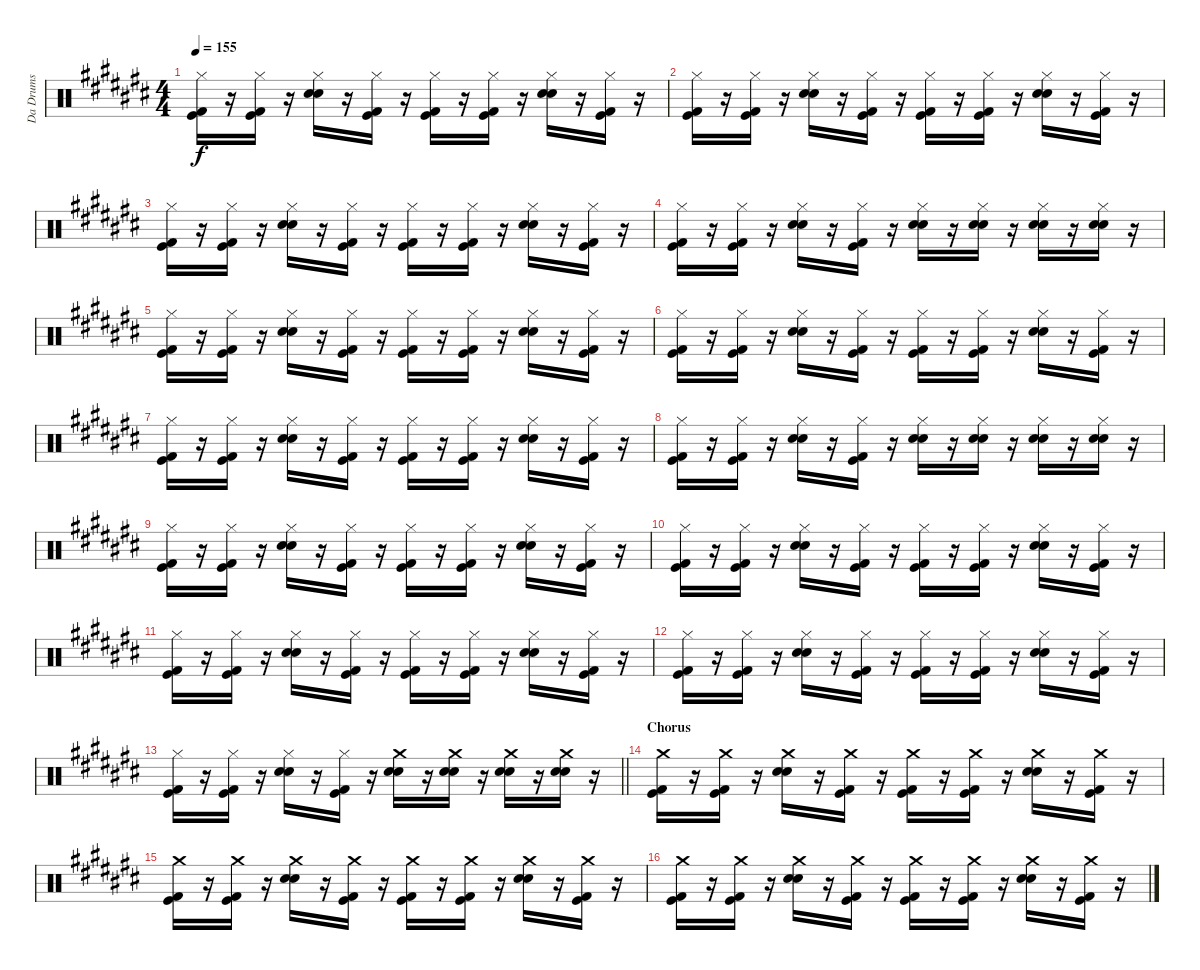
\track ("Da Drums" "Da Drums") {instrument percussion}
\staff {score}
\articulation defaults
\ts (4 4)
\tempo 155
\clef neutral
\ks c#
("Hi-Hat (closed)" "Kick (hit)" "Kick (hit) 2").16{dy f} r.16 ("Hi-Hat (closed)" "Kick (hit)" "Kick (hit) 2").16 r.16 ("Hi-Hat (closed)" "Electric Snare (hit)" "Snare (hit) 2").16 r.16 ("Hi-Hat (closed)" "Kick (hit)" "Kick (hit) 2").16 r.16 ("Hi-Hat (closed)" "Kick (hit)" "Kick (hit) 2").16 r.16 ("Hi-Hat (closed)" "Kick (hit)" "Kick (hit) 2").16 r.16 ("Hi-Hat (closed)" "Electric Snare (hit)" "Snare (hit) 2").16 r.16 ("Hi-Hat (closed)" "Kick (hit)" "Kick (hit) 2").16 r.16 |
("Hi-Hat (closed)" "Kick (hit)" "Kick (hit) 2").16 r.16 ("Hi-Hat (closed)" "Kick (hit)" "Kick (hit) 2").16 r.16 ("Hi-Hat (closed)" "Electric Snare (hit)" "Snare (hit) 2").16 r.16 ("Hi-Hat (closed)" "Kick (hit)" "Kick (hit) 2").16 r.16 ("Hi-Hat (closed)" "Kick (hit)" "Kick (hit) 2").16 r.16 ("Hi-Hat (closed)" "Kick (hit)" "Kick (hit) 2").16 r.16 ("Hi-Hat (closed)" "Electric Snare (hit)" "Snare (hit) 2").16 r.16 ("Hi-Hat (closed)" "Kick (hit)" "Kick (hit) 2").16 r.16 |
("Hi-Hat (closed)" "Kick (hit)" "Kick (hit) 2").16 r.16 ("Hi-Hat (closed)" "Kick (hit)" "Kick (hit) 2").16 r.16 ("Hi-Hat (closed)" "Electric Snare (hit)" "Snare (hit) 2").16 r.16 ("Hi-Hat (closed)" "Kick (hit)" "Kick (hit) 2").16 r.16 ("Hi-Hat (closed)" "Kick (hit)" "Kick (hit) 2").16 r.16 ("Hi-Hat (closed)" "Kick (hit)" "Kick (hit) 2").16 r.16 ("Hi-Hat (closed)" "Electric Snare (hit)" "Snare (hit) 2").16 r.16 ("Hi-Hat (closed)" "Kick (hit)" "Kick (hit) 2").16 r.16 |
("Hi-Hat (closed)" "Kick (hit)" "Kick (hit) 2").16 r.16 ("Hi-Hat (closed)" "Kick (hit)" "Kick (hit) 2").16 r.16 ("Hi-Hat (closed)" "Electric Snare (hit)" "Snare (hit) 2").16 r.16 ("Hi-Hat (closed)" "Kick (hit)" "Kick (hit) 2").16 r.16 ("Hi-Hat (closed)" "Electric Snare (hit)" "Snare (hit) 2").16 r.16 ("Hi-Hat (closed)" "Electric Snare (hit)" "Snare (hit) 2").16 r.16 ("Hi-Hat (closed)" "Electric Snare (hit)" "Snare (hit) 2").16 r.16 ("Hi-Hat (closed)" "Electric Snare (hit)" "Snare (hit) 2").16 r.16 |
("Hi-Hat (closed)" "Kick (hit)" "Kick (hit) 2").16 r.16 ("Hi-Hat (closed)" "Kick (hit)" "Kick (hit) 2").16 r.16 ("Hi-Hat (closed)" "Electric Snare (hit)" "Snare (hit) 2").16 r.16 ("Hi-Hat (closed)" "Kick (hit)" "Kick (hit) 2").16 r.16 ("Hi-Hat (closed)" "Kick (hit)" "Kick (hit) 2").16 r.16 ("Hi-Hat (closed)" "Kick (hit)" "Kick (hit) 2").16 r.16 ("Hi-Hat (closed)" "Electric Snare (hit)" "Snare (hit) 2").16 r.16 ("Hi-Hat (closed)" "Kick (hit)" "Kick (hit) 2").16 r.16 |
("Hi-Hat (closed)" "Kick (hit)" "Kick (hit) 2").16 r.16 ("Hi-Hat (closed)" "Kick (hit)" "Kick (hit) 2").16 r.16 ("Hi-Hat (closed)" "Electric Snare (hit)" "Snare (hit) 2").16 r.16 ("Hi-Hat (closed)" "Kick (hit)" "Kick (hit) 2").16 r.16 ("Hi-Hat (closed)" "Kick (hit)" "Kick (hit) 2").16 r.16 ("Hi-Hat (closed)" "Kick (hit)" "Kick (hit) 2").16 r.16 ("Hi-Hat (closed)" "Electric Snare (hit)" "Snare (hit) 2").16 r.16 ("Hi-Hat (closed)" "Kick (hit)" "Kick (hit) 2").16 r.16 |
("Hi-Hat (closed)" "Kick (hit)" "Kick (hit) 2").16 r.16 ("Hi-Hat (closed)" "Kick (hit)" "Kick (hit) 2").16 r.16 ("Hi-Hat (closed)" "Electric Snare (hit)" "Snare (hit) 2").16 r.16 ("Hi-Hat (closed)" "Kick (hit)" "Kick (hit) 2").16 r.16 ("Hi-Hat (closed)" "Kick (hit)" "Kick (hit) 2").16 r.16 ("Hi-Hat (closed)" "Kick (hit)" "Kick (hit) 2").16 r.16 ("Hi-Hat (closed)" "Electric Snare (hit)" "Snare (hit) 2").16 r.16 ("Hi-Hat (closed)" "Kick (hit)" "Kick (hit) 2").16 r.16 |
("Hi-Hat (closed)" "Kick (hit)" "Kick (hit) 2").16 r.16 ("Hi-Hat (closed)" "Kick (hit)" "Kick (hit) 2").16 r.16 ("Hi-Hat (closed)" "Electric Snare (hit)" "Snare (hit) 2").16 r.16 ("Hi-Hat (closed)" "Kick (hit)" "Kick (hit) 2").16 r.16 ("Hi-Hat (closed)" "Electric Snare (hit)" "Snare (hit) 2").16 r.16 ("Hi-Hat (closed)" "Electric Snare (hit)" "Snare (hit) 2").16 r.16 ("Hi-Hat (closed)" "Electric Snare (hit)" "Snare (hit) 2").16 r.16 ("Hi-Hat (closed)" "Electric Snare (hit)" "Snare (hit) 2").16 r.16 |
("Hi-Hat (closed)" "Kick (hit)" "Kick (hit) 2").16 r.16 ("Hi-Hat (closed)" "Kick (hit)" "Kick (hit) 2").16 r.16 ("Hi-Hat (closed)" "Electric Snare (hit)" "Snare (hit) 2").16 r.16 ("Hi-Hat (closed)" "Kick (hit)" "Kick (hit) 2").16 r.16 ("Hi-Hat (closed)" "Kick (hit)" "Kick (hit) 2").16 r.16 ("Hi-Hat (closed)" "Kick (hit)" "Kick (hit) 2").16 r.16 ("Hi-Hat (closed)" "Electric Snare (hit)" "Snare (hit) 2").16 r.16 ("Hi-Hat (closed)" "Kick (hit)" "Kick (hit) 2").16 r.16 |
("Hi-Hat (closed)" "Kick (hit)" "Kick (hit) 2").16 r.16 ("Hi-Hat (closed)" "Kick (hit)" "Kick (hit) 2").16 r.16 ("Hi-Hat (closed)" "Electric Snare (hit)" "Snare (hit) 2").16 r.16 ("Hi-Hat (closed)" "Kick (hit)" "Kick (hit) 2").16 r.16 ("Hi-Hat (closed)" "Kick (hit)" "Kick (hit) 2").16 r.16 ("Hi-Hat (closed)" "Kick (hit)" "Kick (hit) 2").16 r.16 ("Hi-Hat (closed)" "Electric Snare (hit)" "Snare (hit) 2").16 r.16 ("Hi-Hat (closed)" "Kick (hit)" "Kick (hit) 2").16 r.16 |
("Hi-Hat (closed)" "Kick (hit)" "Kick (hit) 2").16 r.16 ("Hi-Hat (closed)" "Kick (hit)" "Kick (hit) 2").16 r.16 ("Hi-Hat (closed)" "Electric Snare (hit)" "Snare (hit) 2").16 r.16 ("Hi-Hat (closed)" "Kick (hit)" "Kick (hit) 2").16 r.16 ("Hi-Hat (closed)" "Kick (hit)" "Kick (hit) 2").16 r.16 ("Hi-Hat (closed)" "Kick (hit)" "Kick (hit) 2").16 r.16 ("Hi-Hat (closed)" "Electric Snare (hit)" "Snare (hit) 2").16 r.16 ("Hi-Hat (closed)" "Kick (hit)" "Kick (hit) 2").16 r.16 |
("Hi-Hat (closed)" "Kick (hit)" "Kick (hit) 2").16 r.16 ("Hi-Hat (closed)" "Kick (hit)" "Kick (hit) 2").16 r.16 ("Hi-Hat (closed)" "Electric Snare (hit)" "Snare (hit) 2").16 r.16 ("Hi-Hat (closed)" "Kick (hit)" "Kick (hit) 2").16 r.16 ("Hi-Hat (closed)" "Kick (hit)" "Kick (hit) 2").16 r.16 ("Hi-Hat (closed)" "Kick (hit)" "Kick (hit) 2").16 r.16 ("Hi-Hat (closed)" "Electric Snare (hit)" "Snare (hit) 2").16 r.16 ("Hi-Hat (closed)" "Kick (hit)" "Kick (hit) 2").16 r.16 |
\barLineRight lightlight
("Hi-Hat (closed)" "Kick (hit)" "Kick (hit) 2").16 r.16 ("Hi-Hat (closed)" "Kick (hit)" "Kick (hit) 2").16 r.16 ("Hi-Hat (closed)" "Electric Snare (hit)" "Snare (hit) 2").16 r.16 ("Hi-Hat (closed)" "Kick (hit)" "Kick (hit) 2").16 r.16 ("Crash medium (hit)" "Electric Snare (hit)" "Snare (hit) 2").16 r.16 ("Crash medium (hit)" "Electric Snare (hit)" "Snare (hit) 2").16 r.16 ("Crash medium (hit)" "Electric Snare (hit)" "Snare (hit) 2").16 r.16 ("Crash medium (hit)" "Electric Snare (hit)" "Snare (hit) 2").16 r.16 |
\section ("" "Chorus")
("Crash medium (hit)" "Kick (hit)" "Kick (hit) 2").16 r.16 ("Crash medium (hit)" "Kick (hit)" "Kick (hit) 2").16 r.16 ("Crash medium (hit)" "Electric Snare (hit)" "Snare (hit) 2").16 r.16 ("Crash medium (hit)" "Kick (hit)" "Kick (hit) 2").16 r.16 ("Crash medium (hit)" "Kick (hit)" "Kick (hit) 2").16 r.16 ("Crash medium (hit)" "Kick (hit)" "Kick (hit) 2").16 r.16 ("Crash medium (hit)" "Electric Snare (hit)" "Snare (hit) 2").16 r.16 ("Crash medium (hit)" "Kick (hit)" "Kick (hit) 2").16 r.16 |
("Crash medium (hit)" "Kick (hit)" "Kick (hit) 2").16 r.16 ("Crash medium (hit)" "Kick (hit)" "Kick (hit) 2").16 r.16 ("Crash medium (hit)" "Electric Snare (hit)" "Snare (hit) 2").16 r.16 ("Crash medium (hit)" "Kick (hit)" "Kick (hit) 2").16 r.16 ("Crash medium (hit)" "Kick (hit)" "Kick (hit) 2").16 r.16 ("Crash medium (hit)" "Kick (hit)" "Kick (hit) 2").16 r.16 ("Crash medium (hit)" "Electric Snare (hit)" "Snare (hit) 2").16 r.16 ("Crash medium (hit)" "Kick (hit)" "Kick (hit) 2").16 r.16 |
("Crash medium (hit)" "Kick (hit)" "Kick (hit) 2").16 r.16 ("Crash medium (hit)" "Kick (hit)" "Kick (hit) 2").16 r.16 ("Crash medium (hit)" "Electric Snare (hit)" "Snare (hit) 2").16 r.16 ("Crash medium (hit)" "Kick (hit)" "Kick (hit) 2").16 r.16 ("Crash medium (hit)" "Kick (hit)" "Kick (hit) 2").16 r.16 ("Crash medium (hit)" "Kick (hit)" "Kick (hit) 2").16 r.16 ("Crash medium (hit)" "Electric Snare (hit)" "Snare (hit) 2").16 r.16 ("Crash medium (hit)" "Kick (hit)" "Kick (hit) 2").16 r.16
